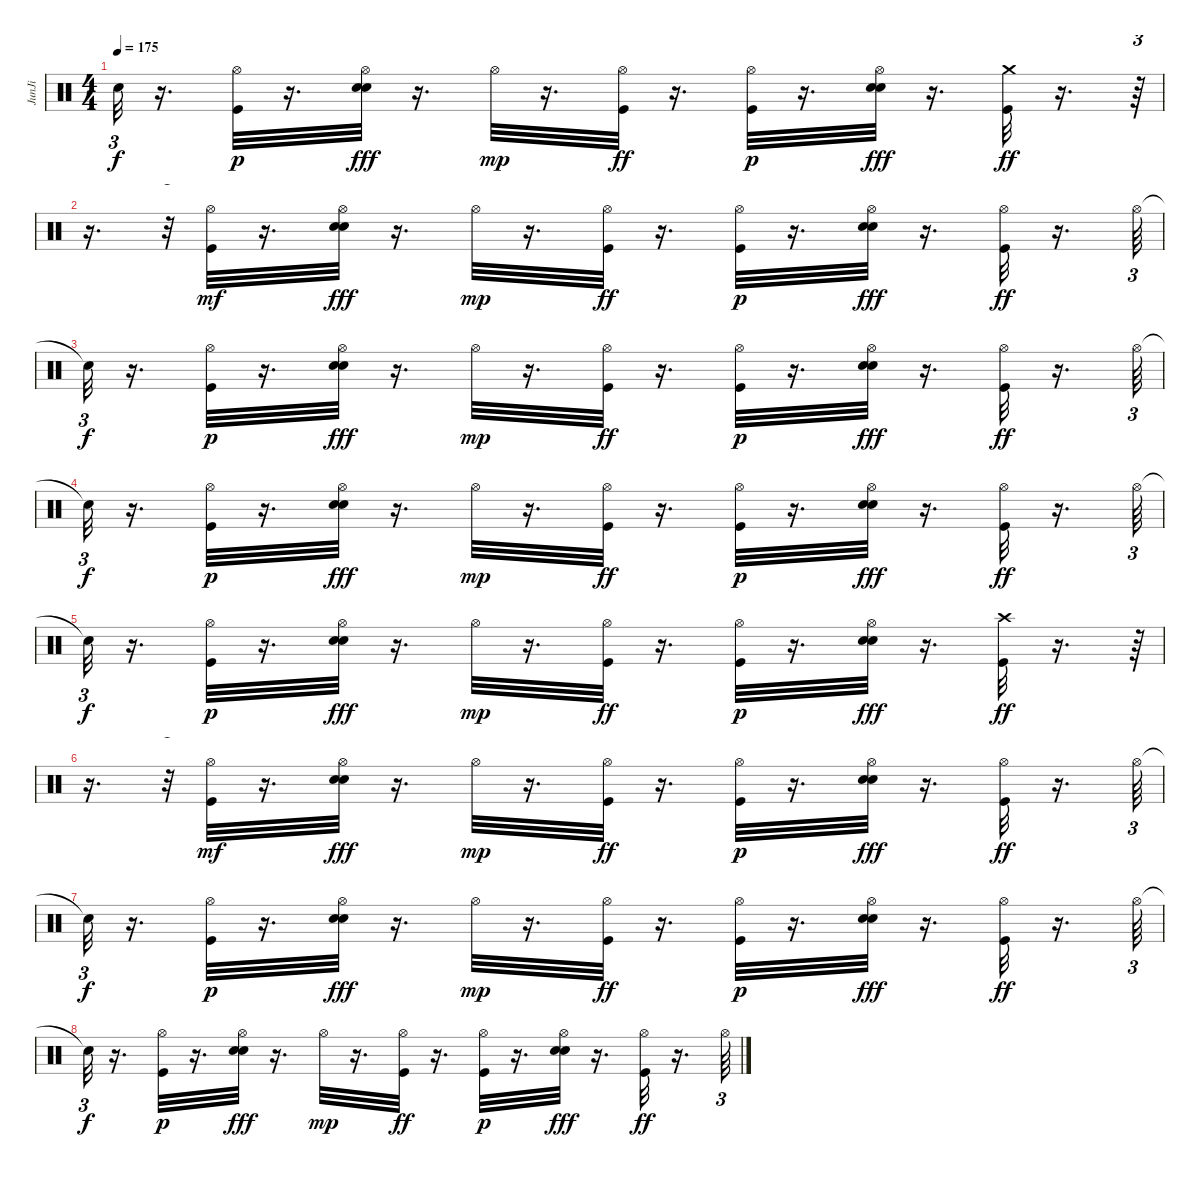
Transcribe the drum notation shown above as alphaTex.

\track ("JunJi" "JunJi") {instrument percussion}
\staff {score}
\articulation defaults
\ts (4 4)
\tempo 175
\clef neutral
\ks c "Snare (hit)"{t}.32{tu (3 2) dy f}
r.16{d} ("Hi-Hat (open)" "Kick (hit)").32{dy p} r.16{d} ("Hi-Hat (open)" "Electric Snare (hit)" "Snare (hit) 2").32{dy fff} r.16{d} "Hi-Hat (open)".32{dy mp} r.16{d} ("Hi-Hat (open)" "Kick (hit)").32{dy ff} r.16{d} ("Hi-Hat (open)" "Kick (hit)").32{dy p} r.16{d} ("Hi-Hat (open)" "Electric Snare (hit)" "Snare (hit) 2").32{dy fff} r.16{d} ("Crash medium (hit)" "Kick (hit)").32{dy ff} r.16{d} r.64{tu (3 2)} |
r.16{d} r.32{tu (3 2)} ("Hi-Hat (open)" "Kick (hit)").32{dy mf} r.16{d} ("Hi-Hat (open)" "Electric Snare (hit)" "Snare (hit) 2").32{dy fff} r.16{d} "Hi-Hat (open)".32{dy mp} r.16{d} ("Hi-Hat (open)" "Kick (hit)").32{dy ff} r.16{d} ("Hi-Hat (open)" "Kick (hit)").32{dy p} r.16{d} ("Hi-Hat (open)" "Electric Snare (hit)" "Snare (hit) 2").32{dy fff} r.16{d} ("Hi-Hat (open)" "Kick (hit)").32{dy ff} r.16{d} "Hi-Hat (open)".64{tu (3 2)} |
"Snare (hit)"{t}.32{tu (3 2) dy f} r.16{d} ("Hi-Hat (open)" "Kick (hit)").32{dy p} r.16{d} ("Hi-Hat (open)" "Electric Snare (hit)" "Snare (hit) 2").32{dy fff} r.16{d} "Hi-Hat (open)".32{dy mp} r.16{d} ("Hi-Hat (open)" "Kick (hit)").32{dy ff} r.16{d} ("Hi-Hat (open)" "Kick (hit)").32{dy p} r.16{d} ("Hi-Hat (open)" "Electric Snare (hit)" "Snare (hit) 2").32{dy fff} r.16{d} ("Hi-Hat (open)" "Kick (hit)").32{dy ff} r.16{d} "Hi-Hat (open)".64{tu (3 2)} |
"Snare (hit)"{t}.32{tu (3 2) dy f} r.16{d} ("Hi-Hat (open)" "Kick (hit)").32{dy p} r.16{d} ("Hi-Hat (open)" "Electric Snare (hit)" "Snare (hit) 2").32{dy fff} r.16{d} "Hi-Hat (open)".32{dy mp} r.16{d} ("Hi-Hat (open)" "Kick (hit)").32{dy ff} r.16{d} ("Hi-Hat (open)" "Kick (hit)").32{dy p} r.16{d} ("Hi-Hat (open)" "Electric Snare (hit)" "Snare (hit) 2").32{dy fff} r.16{d} ("Hi-Hat (open)" "Kick (hit)").32{dy ff} r.16{d} "Hi-Hat (open)".64{tu (3 2)} |
"Snare (hit)"{t}.32{tu (3 2) dy f} r.16{d} ("Hi-Hat (open)" "Kick (hit)").32{dy p} r.16{d} ("Hi-Hat (open)" "Electric Snare (hit)" "Snare (hit) 2").32{dy fff} r.16{d} "Hi-Hat (open)".32{dy mp} r.16{d} ("Hi-Hat (open)" "Kick (hit)").32{dy ff} r.16{d} ("Hi-Hat (open)" "Kick (hit)").32{dy p} r.16{d} ("Hi-Hat (open)" "Electric Snare (hit)" "Snare (hit) 2").32{dy fff} r.16{d} ("Crash high (hit)" "Kick (hit)").32{dy ff} r.16{d} r.64{tu (3 2)} |
r.16{d} r.32{tu (3 2)} ("Hi-Hat (open)" "Kick (hit)").32{dy mf} r.16{d} ("Hi-Hat (open)" "Electric Snare (hit)" "Snare (hit) 2").32{dy fff} r.16{d} "Hi-Hat (open)".32{dy mp} r.16{d} ("Hi-Hat (open)" "Kick (hit)").32{dy ff} r.16{d} ("Hi-Hat (open)" "Kick (hit)").32{dy p} r.16{d} ("Hi-Hat (open)" "Electric Snare (hit)" "Snare (hit) 2").32{dy fff} r.16{d} ("Hi-Hat (open)" "Kick (hit)").32{dy ff} r.16{d} "Hi-Hat (open)".64{tu (3 2)} |
"Snare (hit)"{t}.32{tu (3 2) dy f} r.16{d} ("Hi-Hat (open)" "Kick (hit)").32{dy p} r.16{d} ("Hi-Hat (open)" "Electric Snare (hit)" "Snare (hit) 2").32{dy fff} r.16{d} "Hi-Hat (open)".32{dy mp} r.16{d} ("Hi-Hat (open)" "Kick (hit)").32{dy ff} r.16{d} ("Hi-Hat (open)" "Kick (hit)").32{dy p} r.16{d} ("Hi-Hat (open)" "Electric Snare (hit)" "Snare (hit) 2").32{dy fff} r.16{d} ("Hi-Hat (open)" "Kick (hit)").32{dy ff} r.16{d} "Hi-Hat (open)".64{tu (3 2)} |
"Snare (hit)"{t}.32{tu (3 2) dy f} r.16{d} ("Hi-Hat (open)" "Kick (hit)").32{dy p} r.16{d} ("Hi-Hat (open)" "Electric Snare (hit)" "Snare (hit) 2").32{dy fff} r.16{d} "Hi-Hat (open)".32{dy mp} r.16{d} ("Hi-Hat (open)" "Kick (hit)").32{dy ff} r.16{d} ("Hi-Hat (open)" "Kick (hit)").32{dy p} r.16{d} ("Hi-Hat (open)" "Electric Snare (hit)" "Snare (hit) 2").32{dy fff} r.16{d} ("Hi-Hat (open)" "Kick (hit)").32{dy ff} r.16{d} "Hi-Hat (open)".64{tu (3 2)}
